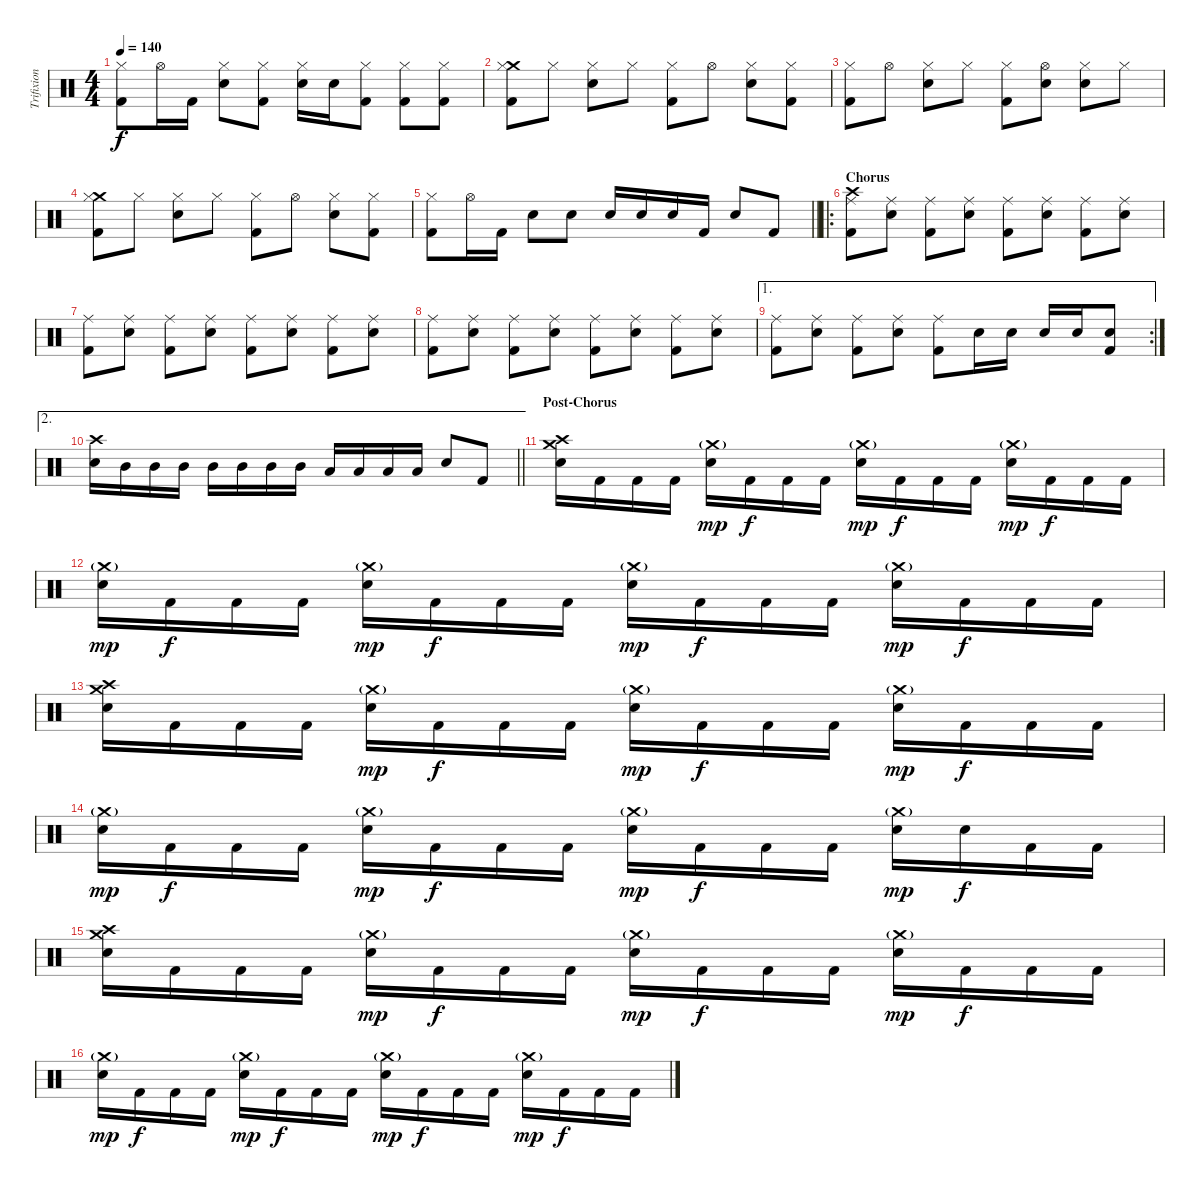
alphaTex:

\track ("Trifixion of the Horned King" "Trifixion ") {instrument percussion}
\staff {score}
\articulation defaults
\ts (4 4)
\tempo 140
\clef neutral
\ks c
("Hi-Hat (closed)" "Kick (hit) 2").8{dy f} "Hi-Hat (open)".16 "Kick (hit) 2".16 ("Hi-Hat (closed)" "Electric Snare (hit)").8 ("Hi-Hat (closed)" "Kick (hit) 2").8 ("Hi-Hat (closed)" "Electric Snare (hit)").16 "Electric Snare (hit)".16 ("Hi-Hat (closed)" "Kick (hit) 2").8 ("Hi-Hat (closed)" "Kick (hit) 2").8 ("Hi-Hat (closed)" "Kick (hit) 2").8 |
("Crash medium (hit)" "Hi-Hat (closed)" "Kick (hit) 2").8 "Hi-Hat (closed)".8 ("Hi-Hat (closed)" "Electric Snare (hit)").8 "Hi-Hat (closed)".8 ("Hi-Hat (closed)" "Kick (hit) 2").8 "Hi-Hat (open)".8 ("Hi-Hat (closed)" "Electric Snare (hit)").8 ("Hi-Hat (closed)" "Kick (hit) 2").8 |
("Hi-Hat (closed)" "Kick (hit) 2").8 "Hi-Hat (open)".8 ("Hi-Hat (closed)" "Electric Snare (hit)").8 "Hi-Hat (closed)".8 ("Hi-Hat (closed)" "Kick (hit) 2").8 ("Hi-Hat (open)" "Electric Snare (hit)").8 ("Hi-Hat (closed)" "Electric Snare (hit)").8 "Hi-Hat (closed)".8 |
("Crash medium (hit)" "Hi-Hat (closed)" "Kick (hit) 2").8 "Hi-Hat (closed)".8 ("Hi-Hat (closed)" "Electric Snare (hit)").8 "Hi-Hat (closed)".8 ("Hi-Hat (closed)" "Kick (hit) 2").8 "Hi-Hat (open)".8 ("Hi-Hat (closed)" "Electric Snare (hit)").8 ("Hi-Hat (closed)" "Kick (hit) 2").8 |
\barLineRight lightlight
("Hi-Hat (closed)" "Kick (hit) 2").8 "Hi-Hat (open)".16 "Kick (hit) 2".16 "Electric Snare (hit)".8 "Electric Snare (hit)".8 "Electric Snare (hit)".16 "Electric Snare (hit)".16 "Electric Snare (hit)".16 "Kick (hit) 2".16 "Electric Snare (hit)".8 "Kick (hit) 2".8 |
\ro
\section ("" "Chorus")
("Crash high (hit)" "Ride (middle)" "Kick (hit) 2").8 ("Ride (middle)" "Electric Snare (hit)").8 ("Ride (middle)" "Kick (hit) 2").8 ("Ride (middle)" "Electric Snare (hit)").8 ("Ride (middle)" "Kick (hit) 2").8 ("Ride (middle)" "Electric Snare (hit)").8 ("Ride (middle)" "Kick (hit) 2").8 ("Ride (middle)" "Electric Snare (hit)").8 |
("Ride (middle)" "Kick (hit) 2").8 ("Ride (middle)" "Electric Snare (hit)").8 ("Ride (middle)" "Kick (hit) 2").8 ("Ride (middle)" "Electric Snare (hit)").8 ("Ride (middle)" "Kick (hit) 2").8 ("Ride (middle)" "Electric Snare (hit)").8 ("Ride (middle)" "Kick (hit) 2").8 ("Ride (middle)" "Electric Snare (hit)").8 |
("Ride (middle)" "Kick (hit) 2").8 ("Ride (middle)" "Electric Snare (hit)").8 ("Ride (middle)" "Kick (hit) 2").8 ("Ride (middle)" "Electric Snare (hit)").8 ("Ride (middle)" "Kick (hit) 2").8 ("Ride (middle)" "Electric Snare (hit)").8 ("Ride (middle)" "Kick (hit) 2").8 ("Ride (middle)" "Electric Snare (hit)").8 |
\ae 1
\rc 2
("Ride (middle)" "Kick (hit) 2").8 ("Ride (middle)" "Electric Snare (hit)").8 ("Ride (middle)" "Kick (hit) 2").8 ("Ride (middle)" "Electric Snare (hit)").8 ("Ride (middle)" "Kick (hit) 2").8 "Electric Snare (hit)".16 "Electric Snare (hit)".16 "Electric Snare (hit)".16 "Electric Snare (hit)".16 ("Electric Snare (hit)" "Kick (hit) 2").8 |
\ae 2
\barLineRight lightlight
("Crash high (hit)" "Electric Snare (hit)").16 "Mid Tom (hit)".16 "Mid Tom (hit)".16 "Mid Tom (hit)".16 "Mid Tom (hit)".16 "Mid Tom (hit)".16 "Mid Tom (hit)".16 "Mid Tom (hit)".16 "Low Tom (hit)".16 "Low Tom (hit)".16 "Low Tom (hit)".16 "Low Tom (hit)".16 "Electric Snare (hit)".8 "Kick (hit) 2".8 |
\section ("" "Post-Chorus")
("Crash high (hit)" "Crash medium (hit)" "Electric Snare (hit)").16 "Kick (hit) 2".16 "Kick (hit) 2".16 "Kick (hit) 2".16 ("Crash medium (hit)"{g} "Electric Snare (hit)").16{dy mp} "Kick (hit) 2".16{dy f} "Kick (hit) 2".16 "Kick (hit) 2".16 ("Crash medium (hit)"{g} "Electric Snare (hit)").16{dy mp} "Kick (hit) 2".16{dy f} "Kick (hit) 2".16 "Kick (hit) 2".16 ("Crash medium (hit)"{g} "Electric Snare (hit)").16{dy mp} "Kick (hit) 2".16{dy f} "Kick (hit) 2".16 "Kick (hit) 2".16 |
("Crash medium (hit)"{g} "Electric Snare (hit)").16{dy mp} "Kick (hit) 2".16{dy f} "Kick (hit) 2".16 "Kick (hit) 2".16 ("Crash medium (hit)"{g} "Electric Snare (hit)").16{dy mp} "Kick (hit) 2".16{dy f} "Kick (hit) 2".16 "Kick (hit) 2".16 ("Crash medium (hit)"{g} "Electric Snare (hit)").16{dy mp} "Kick (hit) 2".16{dy f} "Kick (hit) 2".16 "Kick (hit) 2".16 ("Crash medium (hit)"{g} "Electric Snare (hit)").16{dy mp} "Kick (hit) 2".16{dy f} "Kick (hit) 2".16 "Kick (hit) 2".16 |
("Crash medium (hit)" "Crash high (hit)" "Electric Snare (hit)").16 "Kick (hit) 2".16 "Kick (hit) 2".16 "Kick (hit) 2".16 ("Crash medium (hit)"{g} "Electric Snare (hit)").16{dy mp} "Kick (hit) 2".16{dy f} "Kick (hit) 2".16 "Kick (hit) 2".16 ("Crash medium (hit)"{g} "Electric Snare (hit)").16{dy mp} "Kick (hit) 2".16{dy f} "Kick (hit) 2".16 "Kick (hit) 2".16 ("Crash medium (hit)"{g} "Electric Snare (hit)").16{dy mp} "Kick (hit) 2".16{dy f} "Kick (hit) 2".16 "Kick (hit) 2".16 |
("Crash medium (hit)"{g} "Electric Snare (hit)").16{dy mp} "Kick (hit) 2".16{dy f} "Kick (hit) 2".16 "Kick (hit) 2".16 ("Crash medium (hit)"{g} "Electric Snare (hit)").16{dy mp} "Kick (hit) 2".16{dy f} "Kick (hit) 2".16 "Kick (hit) 2".16 ("Crash medium (hit)"{g} "Electric Snare (hit)").16{dy mp} "Kick (hit) 2".16{dy f} "Kick (hit) 2".16 "Kick (hit) 2".16 ("Crash medium (hit)"{g} "Electric Snare (hit)").16{dy mp} "Electric Snare (hit)".16{dy f} "Kick (hit) 2".16 "Kick (hit) 2".16 |
("Crash high (hit)" "Crash medium (hit)" "Electric Snare (hit)").16 "Kick (hit) 2".16 "Kick (hit) 2".16 "Kick (hit) 2".16 ("Crash medium (hit)"{g} "Electric Snare (hit)").16{dy mp} "Kick (hit) 2".16{dy f} "Kick (hit) 2".16 "Kick (hit) 2".16 ("Crash medium (hit)"{g} "Electric Snare (hit)").16{dy mp} "Kick (hit) 2".16{dy f} "Kick (hit) 2".16 "Kick (hit) 2".16 ("Crash medium (hit)"{g} "Electric Snare (hit)").16{dy mp} "Kick (hit) 2".16{dy f} "Kick (hit) 2".16 "Kick (hit) 2".16 |
("Crash medium (hit)"{g} "Electric Snare (hit)").16{dy mp} "Kick (hit) 2".16{dy f} "Kick (hit) 2".16 "Kick (hit) 2".16 ("Crash medium (hit)"{g} "Electric Snare (hit)").16{dy mp} "Kick (hit) 2".16{dy f} "Kick (hit) 2".16 "Kick (hit) 2".16 ("Crash medium (hit)"{g} "Electric Snare (hit)").16{dy mp} "Kick (hit) 2".16{dy f} "Kick (hit) 2".16 "Kick (hit) 2".16 ("Crash medium (hit)"{g} "Electric Snare (hit)").16{dy mp} "Kick (hit) 2".16{dy f} "Kick (hit) 2".16 "Kick (hit) 2".16
